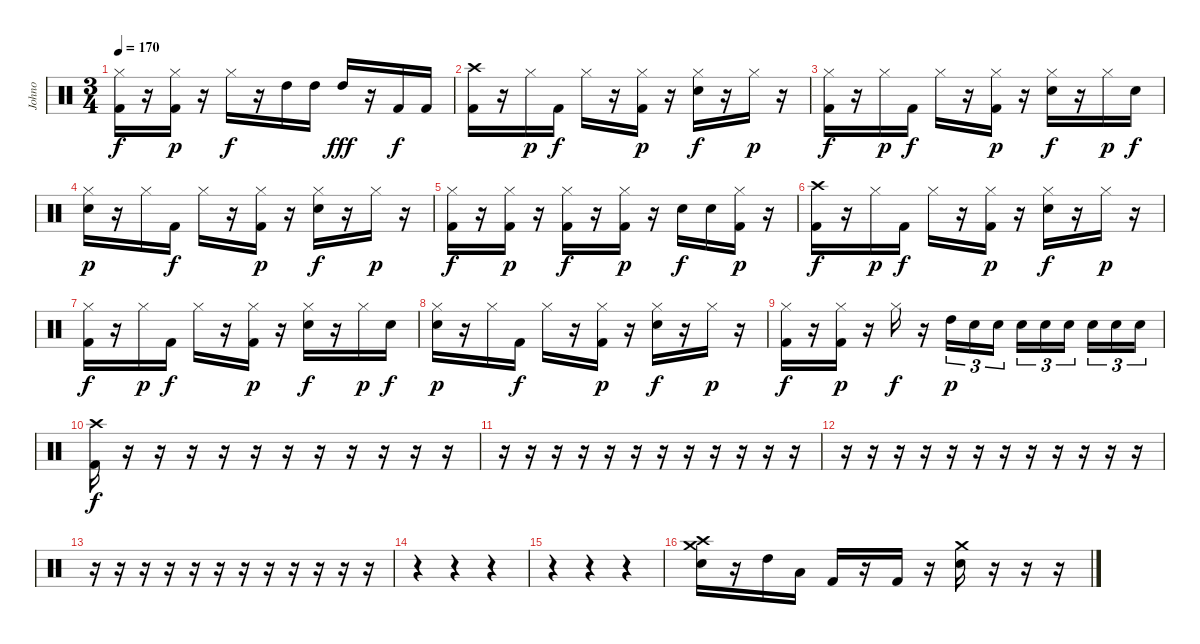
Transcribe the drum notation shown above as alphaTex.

\track ("Johno" "Johno") {instrument percussion}
\staff {score}
\articulation defaults
\ts (3 4)
\tempo 170
\clef neutral
\ks c
("Hi-Hat (closed)" "Kick (hit) 2").16{dy f} r.16 ("Hi-Hat (closed)" "Kick (hit) 2").16{dy p} r.16 "Hi-Hat (closed)".16{dy f} r.16 "High Tom (hit)".16 "High Tom (hit)".16 "High Tom (hit)".16{dy fff} r.16 "Kick (hit) 2".16{dy f} "Kick (hit) 2".16 |
("Crash high (hit)" "Kick (hit) 2").16 r.16 "Hi-Hat (closed)".16{dy p} "Kick (hit) 2".16{dy f} "Hi-Hat (closed)".16 r.16 ("Hi-Hat (closed)" "Kick (hit) 2").16{dy p} r.16 ("Hi-Hat (closed)" "Electric Snare (hit)").16{dy f} r.16 "Hi-Hat (closed)".16{dy p} r.16 |
("Hi-Hat (closed)" "Kick (hit) 2").16{dy f} r.16 "Hi-Hat (closed)".16{dy p} "Kick (hit) 2".16{dy f} "Hi-Hat (closed)".16 r.16 ("Hi-Hat (closed)" "Kick (hit) 2").16{dy p} r.16 ("Hi-Hat (closed)" "Electric Snare (hit)").16{dy f} r.16 "Hi-Hat (closed)".16{dy p} "Electric Snare (hit)".16{dy f} |
("Hi-Hat (closed)" "Electric Snare (hit)").16{dy p} r.16 "Hi-Hat (closed)".16 "Kick (hit) 2".16{dy f} "Hi-Hat (closed)".16 r.16 ("Hi-Hat (closed)" "Kick (hit) 2").16{dy p} r.16 ("Hi-Hat (closed)" "Electric Snare (hit)").16{dy f} r.16 "Hi-Hat (closed)".16{dy p} r.16 |
("Hi-Hat (closed)" "Kick (hit) 2").16{dy f} r.16 ("Hi-Hat (closed)" "Kick (hit) 2").16{dy p} r.16 ("Hi-Hat (closed)" "Kick (hit) 2").16{dy f} r.16 ("Hi-Hat (closed)" "Kick (hit) 2").16{dy p} r.16 "Electric Snare (hit)".16{dy f} "Electric Snare (hit)".16 ("Hi-Hat (closed)" "Kick (hit) 2").16{dy p} r.16 |
("Crash high (hit)" "Kick (hit) 2").16{dy f} r.16 "Hi-Hat (closed)".16{dy p} "Kick (hit) 2".16{dy f} "Hi-Hat (closed)".16 r.16 ("Hi-Hat (closed)" "Kick (hit) 2").16{dy p} r.16 ("Hi-Hat (closed)" "Electric Snare (hit)").16{dy f} r.16 "Hi-Hat (closed)".16{dy p} r.16 |
("Hi-Hat (closed)" "Kick (hit) 2").16{dy f} r.16 "Hi-Hat (closed)".16{dy p} "Kick (hit) 2".16{dy f} "Hi-Hat (closed)".16 r.16 ("Hi-Hat (closed)" "Kick (hit) 2").16{dy p} r.16 ("Hi-Hat (closed)" "Electric Snare (hit)").16{dy f} r.16 "Hi-Hat (closed)".16{dy p} "Electric Snare (hit)".16{dy f} |
("Hi-Hat (closed)" "Electric Snare (hit)").16{dy p} r.16 "Hi-Hat (closed)".16 "Kick (hit) 2".16{dy f} "Hi-Hat (closed)".16 r.16 ("Hi-Hat (closed)" "Kick (hit) 2").16{dy p} r.16 ("Hi-Hat (closed)" "Electric Snare (hit)").16{dy f} r.16 "Hi-Hat (closed)".16{dy p} r.16 |
("Hi-Hat (closed)" "Kick (hit) 2").16{dy f} r.16 ("Hi-Hat (closed)" "Kick (hit) 2").16{dy p} r.16 "Hi-Hat (closed)".16{dy f} r.16 "High Tom (hit)".16{tu (3 2) dy p} "Electric Snare (hit)".16{tu (3 2)} "Electric Snare (hit)".16{tu (3 2)} "Electric Snare (hit)".16{tu (3 2)} "Electric Snare (hit)".16{tu (3 2)} "Electric Snare (hit)".16{tu (3 2) beam splitsecondary} "Electric Snare (hit)".16{tu (3 2)} "Electric Snare (hit)".16{tu (3 2)} "Electric Snare (hit)".16{tu (3 2)} |
("Crash high (hit)" "Kick (hit) 2").16{dy f} r.16 r.16 r.16 r.16 r.16 r.16 r.16 r.16 r.16 r.16 r.16 |
r.16 r.16 r.16 r.16 r.16 r.16 r.16 r.16 r.16 r.16 r.16 r.16 |
r.16 r.16 r.16 r.16 r.16 r.16 r.16 r.16 r.16 r.16 r.16 r.16 |
r.16 r.16 r.16 r.16 r.16 r.16 r.16 r.16 r.16 r.16 r.16 r.16 |
r.4 r.4 r.4 |
r.4 r.4 r.4 |
("Crash medium (hit)" "Crash high (hit)" "Electric Snare (hit)").16 r.16 "High Tom (hit)".16 "Low Floor Tom (hit)".16 "Kick (hit) 2".16 r.16 "Kick (hit) 2".16 r.16 ("Crash medium (hit)" "Electric Snare (hit)").16 r.16 r.16 r.16
